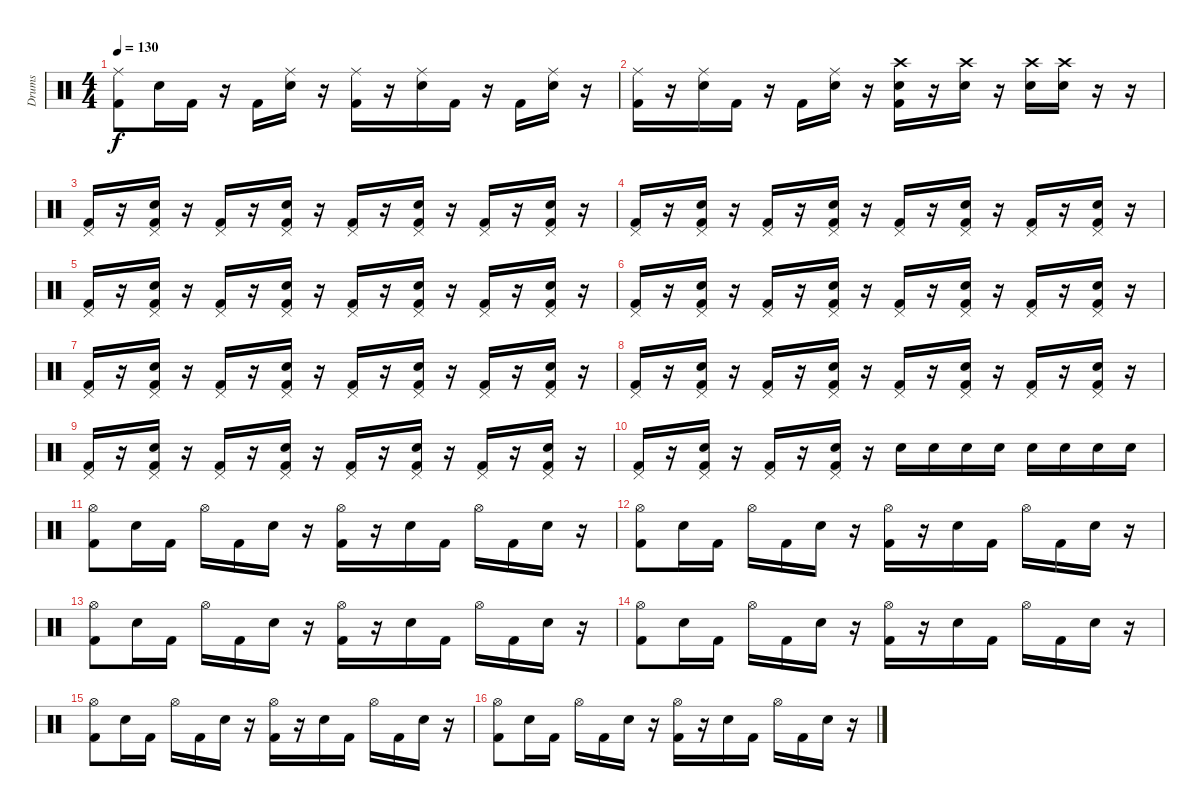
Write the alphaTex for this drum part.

\track ("Drums" "Drums") {instrument percussion}
\staff {score}
\articulation defaults
\ts (4 4)
\tempo 130
\clef neutral
\ks c
("Ride (middle)" "Kick (hit) 2").8{dy f} "Electric Snare (hit)".16 "Kick (hit) 2".16 r.16 "Kick (hit) 2".16 ("Ride (middle)" "Electric Snare (hit)").16 r.16 ("Ride (middle)" "Kick (hit) 2").16 r.16 ("Ride (middle)" "Electric Snare (hit)").16 "Kick (hit) 2".16 r.16 "Kick (hit) 2".16 ("Ride (middle)" "Electric Snare (hit)").16 r.16 |
("Ride (middle)" "Kick (hit) 2").16 r.16 ("Ride (middle)" "Electric Snare (hit)").16 "Kick (hit) 2".16 r.16 "Kick (hit) 2".16 ("Ride (middle)" "Electric Snare (hit)").16 r.16 ("Crash high (hit)" "Electric Snare (hit)" "Kick (hit) 2").16 r.16 ("Crash high (hit)" "Electric Snare (hit)").16 r.16 ("Crash high (hit)" "Electric Snare (hit)").16 ("Crash high (hit)" "Electric Snare (hit)").16 r.16 r.16 |
("Pedal Hi-Hat (hit)" "Kick (hit) 2").16 r.16 ("Pedal Hi-Hat (hit)" "Electric Snare (hit)" "Kick (hit) 2").16 r.16 ("Pedal Hi-Hat (hit)" "Kick (hit) 2").16 r.16 ("Pedal Hi-Hat (hit)" "Electric Snare (hit)" "Kick (hit) 2").16 r.16 ("Pedal Hi-Hat (hit)" "Kick (hit) 2").16 r.16 ("Pedal Hi-Hat (hit)" "Electric Snare (hit)" "Kick (hit) 2").16 r.16 ("Pedal Hi-Hat (hit)" "Kick (hit) 2").16 r.16 ("Pedal Hi-Hat (hit)" "Electric Snare (hit)" "Kick (hit) 2").16 r.16 |
("Pedal Hi-Hat (hit)" "Kick (hit) 2").16 r.16 ("Pedal Hi-Hat (hit)" "Electric Snare (hit)" "Kick (hit) 2").16 r.16 ("Pedal Hi-Hat (hit)" "Kick (hit) 2").16 r.16 ("Pedal Hi-Hat (hit)" "Electric Snare (hit)" "Kick (hit) 2").16 r.16 ("Pedal Hi-Hat (hit)" "Kick (hit) 2").16 r.16 ("Pedal Hi-Hat (hit)" "Electric Snare (hit)" "Kick (hit) 2").16 r.16 ("Pedal Hi-Hat (hit)" "Kick (hit) 2").16 r.16 ("Pedal Hi-Hat (hit)" "Electric Snare (hit)" "Kick (hit) 2").16 r.16 |
("Pedal Hi-Hat (hit)" "Kick (hit) 2").16 r.16 ("Pedal Hi-Hat (hit)" "Electric Snare (hit)" "Kick (hit) 2").16 r.16 ("Pedal Hi-Hat (hit)" "Kick (hit) 2").16 r.16 ("Pedal Hi-Hat (hit)" "Electric Snare (hit)" "Kick (hit) 2").16 r.16 ("Pedal Hi-Hat (hit)" "Kick (hit) 2").16 r.16 ("Pedal Hi-Hat (hit)" "Electric Snare (hit)" "Kick (hit) 2").16 r.16 ("Pedal Hi-Hat (hit)" "Kick (hit) 2").16 r.16 ("Pedal Hi-Hat (hit)" "Electric Snare (hit)" "Kick (hit) 2").16 r.16 |
("Pedal Hi-Hat (hit)" "Kick (hit) 2").16 r.16 ("Pedal Hi-Hat (hit)" "Electric Snare (hit)" "Kick (hit) 2").16 r.16 ("Pedal Hi-Hat (hit)" "Kick (hit) 2").16 r.16 ("Pedal Hi-Hat (hit)" "Electric Snare (hit)" "Kick (hit) 2").16 r.16 ("Pedal Hi-Hat (hit)" "Kick (hit) 2").16 r.16 ("Pedal Hi-Hat (hit)" "Electric Snare (hit)" "Kick (hit) 2").16 r.16 ("Pedal Hi-Hat (hit)" "Kick (hit) 2").16 r.16 ("Pedal Hi-Hat (hit)" "Electric Snare (hit)" "Kick (hit) 2").16 r.16 |
("Pedal Hi-Hat (hit)" "Kick (hit) 2").16 r.16 ("Pedal Hi-Hat (hit)" "Electric Snare (hit)" "Kick (hit) 2").16 r.16 ("Pedal Hi-Hat (hit)" "Kick (hit) 2").16 r.16 ("Pedal Hi-Hat (hit)" "Electric Snare (hit)" "Kick (hit) 2").16 r.16 ("Pedal Hi-Hat (hit)" "Kick (hit) 2").16 r.16 ("Pedal Hi-Hat (hit)" "Electric Snare (hit)" "Kick (hit) 2").16 r.16 ("Pedal Hi-Hat (hit)" "Kick (hit) 2").16 r.16 ("Pedal Hi-Hat (hit)" "Electric Snare (hit)" "Kick (hit) 2").16 r.16 |
("Pedal Hi-Hat (hit)" "Kick (hit) 2").16 r.16 ("Pedal Hi-Hat (hit)" "Electric Snare (hit)" "Kick (hit) 2").16 r.16 ("Pedal Hi-Hat (hit)" "Kick (hit) 2").16 r.16 ("Pedal Hi-Hat (hit)" "Electric Snare (hit)" "Kick (hit) 2").16 r.16 ("Pedal Hi-Hat (hit)" "Kick (hit) 2").16 r.16 ("Pedal Hi-Hat (hit)" "Electric Snare (hit)" "Kick (hit) 2").16 r.16 ("Pedal Hi-Hat (hit)" "Kick (hit) 2").16 r.16 ("Pedal Hi-Hat (hit)" "Electric Snare (hit)" "Kick (hit) 2").16 r.16 |
("Pedal Hi-Hat (hit)" "Kick (hit) 2").16 r.16 ("Pedal Hi-Hat (hit)" "Electric Snare (hit)" "Kick (hit) 2").16 r.16 ("Pedal Hi-Hat (hit)" "Kick (hit) 2").16 r.16 ("Pedal Hi-Hat (hit)" "Electric Snare (hit)" "Kick (hit) 2").16 r.16 ("Pedal Hi-Hat (hit)" "Kick (hit) 2").16 r.16 ("Pedal Hi-Hat (hit)" "Electric Snare (hit)" "Kick (hit) 2").16 r.16 ("Pedal Hi-Hat (hit)" "Kick (hit) 2").16 r.16 ("Pedal Hi-Hat (hit)" "Electric Snare (hit)" "Kick (hit) 2").16 r.16 |
("Pedal Hi-Hat (hit)" "Kick (hit) 2").16 r.16 ("Pedal Hi-Hat (hit)" "Electric Snare (hit)" "Kick (hit) 2").16 r.16 ("Pedal Hi-Hat (hit)" "Kick (hit) 2").16 r.16 ("Pedal Hi-Hat (hit)" "Electric Snare (hit)" "Kick (hit) 2").16 r.16 "Electric Snare (hit)".16 "Electric Snare (hit)".16 "Electric Snare (hit)".16 "Electric Snare (hit)".16 "Electric Snare (hit)".16 "Electric Snare (hit)".16 "Electric Snare (hit)".16 "Electric Snare (hit)".16 |
("Hi-Hat (open)" "Kick (hit) 2").8 "Electric Snare (hit)".16 "Kick (hit) 2".16 "Hi-Hat (open)".16 "Kick (hit) 2".16 "Electric Snare (hit)".16 r.16 ("Hi-Hat (open)" "Kick (hit) 2").16 r.16 "Electric Snare (hit)".16 "Kick (hit) 2".16 "Hi-Hat (open)".16 "Kick (hit) 2".16 "Electric Snare (hit)".16 r.16 |
("Hi-Hat (open)" "Kick (hit) 2").8 "Electric Snare (hit)".16 "Kick (hit) 2".16 "Hi-Hat (open)".16 "Kick (hit) 2".16 "Electric Snare (hit)".16 r.16 ("Hi-Hat (open)" "Kick (hit) 2").16 r.16 "Electric Snare (hit)".16 "Kick (hit) 2".16 "Hi-Hat (open)".16 "Kick (hit) 2".16 "Electric Snare (hit)".16 r.16 |
("Hi-Hat (open)" "Kick (hit) 2").8 "Electric Snare (hit)".16 "Kick (hit) 2".16 "Hi-Hat (open)".16 "Kick (hit) 2".16 "Electric Snare (hit)".16 r.16 ("Hi-Hat (open)" "Kick (hit) 2").16 r.16 "Electric Snare (hit)".16 "Kick (hit) 2".16 "Hi-Hat (open)".16 "Kick (hit) 2".16 "Electric Snare (hit)".16 r.16 |
("Hi-Hat (open)" "Kick (hit) 2").8 "Electric Snare (hit)".16 "Kick (hit) 2".16 "Hi-Hat (open)".16 "Kick (hit) 2".16 "Electric Snare (hit)".16 r.16 ("Hi-Hat (open)" "Kick (hit) 2").16 r.16 "Electric Snare (hit)".16 "Kick (hit) 2".16 "Hi-Hat (open)".16 "Kick (hit) 2".16 "Electric Snare (hit)".16 r.16 |
("Hi-Hat (open)" "Kick (hit) 2").8 "Electric Snare (hit)".16 "Kick (hit) 2".16 "Hi-Hat (open)".16 "Kick (hit) 2".16 "Electric Snare (hit)".16 r.16 ("Hi-Hat (open)" "Kick (hit) 2").16 r.16 "Electric Snare (hit)".16 "Kick (hit) 2".16 "Hi-Hat (open)".16 "Kick (hit) 2".16 "Electric Snare (hit)".16 r.16 |
("Hi-Hat (open)" "Kick (hit) 2").8 "Electric Snare (hit)".16 "Kick (hit) 2".16 "Hi-Hat (open)".16 "Kick (hit) 2".16 "Electric Snare (hit)".16 r.16 ("Hi-Hat (open)" "Kick (hit) 2").16 r.16 "Electric Snare (hit)".16 "Kick (hit) 2".16 "Hi-Hat (open)".16 "Kick (hit) 2".16 "Electric Snare (hit)".16 r.16
